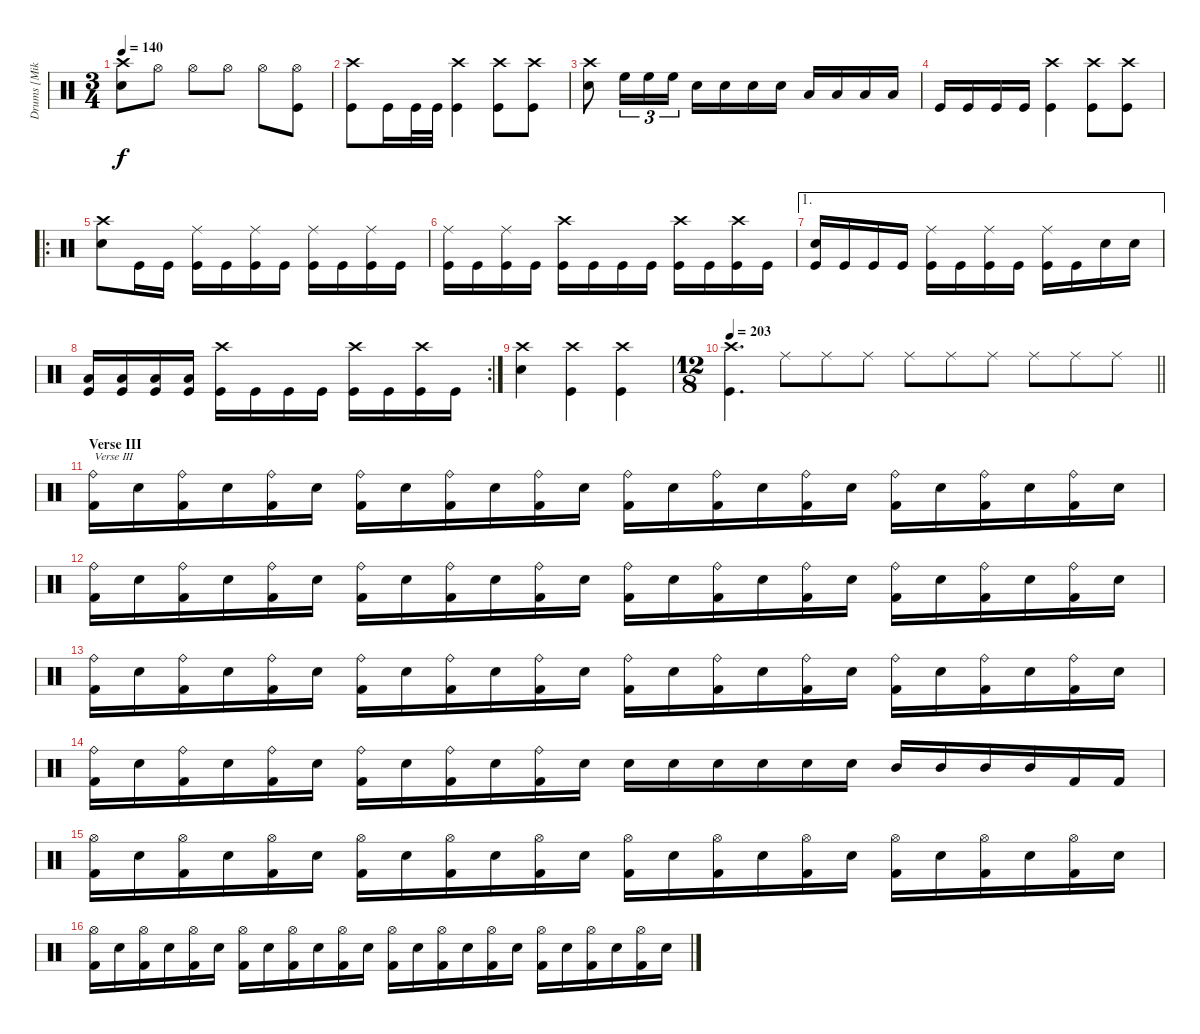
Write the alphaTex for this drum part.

\track ("Drums [Mike Smith]" "Drums [Mik") {instrument percussion}
\staff {score}
\articulation defaults
\ts (3 4)
\tempo 140
\clef neutral
\ks c
("Crash high (hit)" "Electric Snare (hit)").8{dy f} "Hi-Hat (open)".8 "Hi-Hat (open)".8 "Hi-Hat (open)".8 "Hi-Hat (open)".8 ("Hi-Hat (open)" "Kick (hit)").8 |
("Crash high (hit)" "Kick (hit)").8 "Kick (hit)".16 "Kick (hit)".32 "Kick (hit)".32 ("Crash high (hit)" "Kick (hit)").4 ("Crash high (hit)" "Kick (hit)").8 ("Crash high (hit)" "Kick (hit)").8 |
("Crash high (hit)" "Electric Snare (hit)").8 "High Floor Tom (hit)".16{tu (3 2)} "High Floor Tom (hit)".16{tu (3 2)} "High Floor Tom (hit)".16{tu (3 2)} "Electric Snare (hit)".16 "Electric Snare (hit)".16 "Electric Snare (hit)".16 "Electric Snare (hit)".16 "Low Floor Tom (hit)".16 "Low Floor Tom (hit)".16 "Low Floor Tom (hit)".16 "Low Floor Tom (hit)".16 |
"Kick (hit)".16 "Kick (hit)".16 "Kick (hit)".16 "Kick (hit)".16 ("Crash high (hit)" "Kick (hit)").4 ("Crash high (hit)" "Kick (hit)").8 ("Crash high (hit)" "Kick (hit)").8 |
\ro
("Crash high (hit)" "Electric Snare (hit)").8 "Kick (hit)".16 "Kick (hit)".16 ("Ride (middle)" "Kick (hit)").16 "Kick (hit)".16 ("Ride (middle)" "Kick (hit)").16 "Kick (hit)".16 ("Ride (middle)" "Kick (hit)").16 "Kick (hit)".16 ("Ride (middle)" "Kick (hit)").16 "Kick (hit)".16 |
("Ride (middle)" "Kick (hit)").16 "Kick (hit)".16 ("Ride (middle)" "Kick (hit)").16 "Kick (hit)".16 ("Crash high (hit)" "Kick (hit)").16 "Kick (hit)".16 "Kick (hit)".16 "Kick (hit)".16 ("Crash high (hit)" "Kick (hit)").16 "Kick (hit)".16 ("Crash high (hit)" "Kick (hit)").16 "Kick (hit)".16 |
\ae 1
("Electric Snare (hit)" "Kick (hit)").16 "Kick (hit)".16 "Kick (hit)".16 "Kick (hit)".16 ("Ride (middle)" "Kick (hit)").16 "Kick (hit)".16 ("Ride (middle)" "Kick (hit)").16 "Kick (hit)".16 ("Ride (middle)" "Kick (hit)").16 "Kick (hit)".16 "Electric Snare (hit)".16 "Electric Snare (hit)".16 |
\rc 2
("Low Floor Tom (hit)" "Kick (hit)").16 ("Low Floor Tom (hit)" "Kick (hit)").16 ("Low Floor Tom (hit)" "Kick (hit)").16 ("Low Floor Tom (hit)" "Kick (hit)").16 ("Crash high (hit)" "Kick (hit)").16 "Kick (hit)".16 "Kick (hit)".16 "Kick (hit)".16 ("Crash high (hit)" "Kick (hit)").16 "Kick (hit)".16 ("Crash high (hit)" "Kick (hit)").16 "Kick (hit)".16 |
("Crash high (hit)" "Electric Snare (hit)").4 ("Crash high (hit)" "Kick (hit)").4 ("Crash high (hit)" "Kick (hit)").4 |
\ts (12 8)
\tempo 203
\barLineRight lightlight
("Crash high (hit)" "Kick (hit)").4{d} "Ride (middle)".8 "Ride (middle)".8 "Ride (middle)".8 "Ride (middle)".8 "Ride (middle)".8 "Ride (middle)".8 "Ride (middle)".8 "Ride (middle)".8 "Ride (middle)".8 |
\section ("" "Verse III")
("Ride (bell)" "Kick (hit) 2").16{txt "Verse III"} "Electric Snare (hit)".16 ("Ride (bell)" "Kick (hit) 2").16 "Electric Snare (hit)".16 ("Ride (bell)" "Kick (hit) 2").16 "Electric Snare (hit)".16 ("Ride (bell)" "Kick (hit) 2").16 "Electric Snare (hit)".16 ("Ride (bell)" "Kick (hit) 2").16 "Electric Snare (hit)".16 ("Ride (bell)" "Kick (hit) 2").16 "Electric Snare (hit)".16 ("Ride (bell)" "Kick (hit) 2").16 "Electric Snare (hit)".16 ("Ride (bell)" "Kick (hit) 2").16 "Electric Snare (hit)".16 ("Ride (bell)" "Kick (hit) 2").16 "Electric Snare (hit)".16 ("Ride (bell)" "Kick (hit) 2").16 "Electric Snare (hit)".16 ("Ride (bell)" "Kick (hit) 2").16 "Electric Snare (hit)".16 ("Ride (bell)" "Kick (hit) 2").16 "Electric Snare (hit)".16 |
("Ride (bell)" "Kick (hit) 2").16 "Electric Snare (hit)".16 ("Ride (bell)" "Kick (hit) 2").16 "Electric Snare (hit)".16 ("Ride (bell)" "Kick (hit) 2").16 "Electric Snare (hit)".16 ("Ride (bell)" "Kick (hit) 2").16 "Electric Snare (hit)".16 ("Ride (bell)" "Kick (hit) 2").16 "Electric Snare (hit)".16 ("Ride (bell)" "Kick (hit) 2").16 "Electric Snare (hit)".16 ("Ride (bell)" "Kick (hit) 2").16 "Electric Snare (hit)".16 ("Ride (bell)" "Kick (hit) 2").16 "Electric Snare (hit)".16 ("Ride (bell)" "Kick (hit) 2").16 "Electric Snare (hit)".16 ("Ride (bell)" "Kick (hit) 2").16 "Electric Snare (hit)".16 ("Ride (bell)" "Kick (hit) 2").16 "Electric Snare (hit)".16 ("Ride (bell)" "Kick (hit) 2").16 "Electric Snare (hit)".16 |
("Ride (bell)" "Kick (hit) 2").16 "Electric Snare (hit)".16 ("Ride (bell)" "Kick (hit) 2").16 "Electric Snare (hit)".16 ("Ride (bell)" "Kick (hit) 2").16 "Electric Snare (hit)".16 ("Ride (bell)" "Kick (hit) 2").16 "Electric Snare (hit)".16 ("Ride (bell)" "Kick (hit) 2").16 "Electric Snare (hit)".16 ("Ride (bell)" "Kick (hit) 2").16 "Electric Snare (hit)".16 ("Ride (bell)" "Kick (hit) 2").16 "Electric Snare (hit)".16 ("Ride (bell)" "Kick (hit) 2").16 "Electric Snare (hit)".16 ("Ride (bell)" "Kick (hit) 2").16 "Electric Snare (hit)".16 ("Ride (bell)" "Kick (hit) 2").16 "Electric Snare (hit)".16 ("Ride (bell)" "Kick (hit) 2").16 "Electric Snare (hit)".16 ("Ride (bell)" "Kick (hit) 2").16 "Electric Snare (hit)".16 |
("Ride (bell)" "Kick (hit) 2").16 "Electric Snare (hit)".16 ("Ride (bell)" "Kick (hit) 2").16 "Electric Snare (hit)".16 ("Ride (bell)" "Kick (hit) 2").16 "Electric Snare (hit)".16 ("Ride (bell)" "Kick (hit) 2").16 "Electric Snare (hit)".16 ("Ride (bell)" "Kick (hit) 2").16 "Electric Snare (hit)".16 ("Ride (bell)" "Kick (hit) 2").16 "Electric Snare (hit)".16 "Electric Snare (hit)".16 "Electric Snare (hit)".16 "Electric Snare (hit)".16 "Electric Snare (hit)".16 "Electric Snare (hit)".16 "Electric Snare (hit)".16 "Mid Tom (hit)".16 "Mid Tom (hit)".16 "Mid Tom (hit)".16 "Mid Tom (hit)".16 "Kick (hit) 2".16 "Kick (hit) 2".16 |
("Hi-Hat (open)" "Kick (hit) 2").16 "Electric Snare (hit)".16 ("Hi-Hat (open)" "Kick (hit) 2").16 "Electric Snare (hit)".16 ("Hi-Hat (open)" "Kick (hit) 2").16 "Electric Snare (hit)".16 ("Hi-Hat (open)" "Kick (hit) 2").16 "Electric Snare (hit)".16 ("Hi-Hat (open)" "Kick (hit) 2").16 "Electric Snare (hit)".16 ("Hi-Hat (open)" "Kick (hit) 2").16 "Electric Snare (hit)".16 ("Hi-Hat (open)" "Kick (hit) 2").16 "Electric Snare (hit)".16 ("Hi-Hat (open)" "Kick (hit) 2").16 "Electric Snare (hit)".16 ("Hi-Hat (open)" "Kick (hit) 2").16 "Electric Snare (hit)".16 ("Hi-Hat (open)" "Kick (hit) 2").16 "Electric Snare (hit)".16 ("Hi-Hat (open)" "Kick (hit) 2").16 "Electric Snare (hit)".16 ("Hi-Hat (open)" "Kick (hit) 2").16 "Electric Snare (hit)".16 |
("Hi-Hat (open)" "Kick (hit) 2").16 "Electric Snare (hit)".16 ("Hi-Hat (open)" "Kick (hit) 2").16 "Electric Snare (hit)".16 ("Hi-Hat (open)" "Kick (hit) 2").16 "Electric Snare (hit)".16 ("Hi-Hat (open)" "Kick (hit) 2").16 "Electric Snare (hit)".16 ("Hi-Hat (open)" "Kick (hit) 2").16 "Electric Snare (hit)".16 ("Hi-Hat (open)" "Kick (hit) 2").16 "Electric Snare (hit)".16 ("Hi-Hat (open)" "Kick (hit) 2").16 "Electric Snare (hit)".16 ("Hi-Hat (open)" "Kick (hit) 2").16 "Electric Snare (hit)".16 ("Hi-Hat (open)" "Kick (hit) 2").16 "Electric Snare (hit)".16 ("Hi-Hat (open)" "Kick (hit) 2").16 "Electric Snare (hit)".16 ("Hi-Hat (open)" "Kick (hit) 2").16 "Electric Snare (hit)".16 ("Hi-Hat (open)" "Kick (hit) 2").16 "Electric Snare (hit)".16
